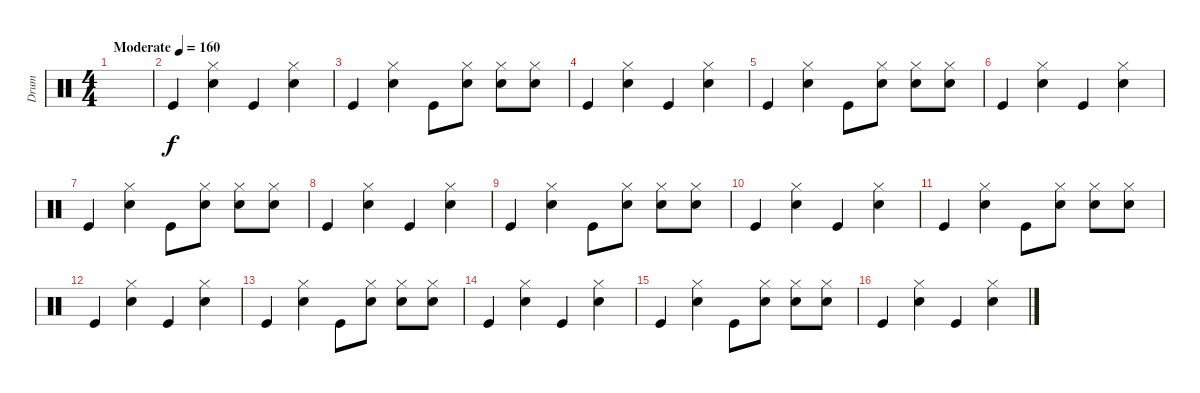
\track ("Drum" "Drum") {instrument percussion}
\staff {score}
\articulation defaults
\ts (4 4)
\tempo (160 "Moderate")
\clef neutral
\ks c
|
"Kick (hit)".4 ("Hi-Hat (closed)" "Snare (hit) 2").4 "Kick (hit)".4 ("Hi-Hat (closed)" "Snare (hit) 2").4 |
"Kick (hit)".4 ("Hi-Hat (closed)" "Snare (hit) 2").4 "Kick (hit)".8 ("Hi-Hat (closed)" "Snare (hit) 2").8 ("Hi-Hat (closed)" "Snare (hit) 2").8 ("Hi-Hat (closed)" "Snare (hit) 2").8 |
"Kick (hit)".4 ("Hi-Hat (closed)" "Snare (hit) 2").4 "Kick (hit)".4 ("Hi-Hat (closed)" "Snare (hit) 2").4 |
"Kick (hit)".4 ("Hi-Hat (closed)" "Snare (hit) 2").4 "Kick (hit)".8 ("Hi-Hat (closed)" "Snare (hit) 2").8 ("Hi-Hat (closed)" "Snare (hit) 2").8 ("Hi-Hat (closed)" "Snare (hit) 2").8 |
"Kick (hit)".4 ("Hi-Hat (closed)" "Snare (hit) 2").4 "Kick (hit)".4 ("Hi-Hat (closed)" "Snare (hit) 2").4 |
"Kick (hit)".4 ("Hi-Hat (closed)" "Snare (hit) 2").4 "Kick (hit)".8 ("Hi-Hat (closed)" "Snare (hit) 2").8 ("Hi-Hat (closed)" "Snare (hit) 2").8 ("Hi-Hat (closed)" "Snare (hit) 2").8 |
"Kick (hit)".4 ("Hi-Hat (closed)" "Snare (hit) 2").4 "Kick (hit)".4 ("Hi-Hat (closed)" "Snare (hit) 2").4 |
"Kick (hit)".4 ("Hi-Hat (closed)" "Snare (hit) 2").4 "Kick (hit)".8 ("Hi-Hat (closed)" "Snare (hit) 2").8 ("Hi-Hat (closed)" "Snare (hit) 2").8 ("Hi-Hat (closed)" "Snare (hit) 2").8 |
"Kick (hit)".4 ("Hi-Hat (closed)" "Snare (hit) 2").4 "Kick (hit)".4 ("Hi-Hat (closed)" "Snare (hit) 2").4 |
"Kick (hit)".4 ("Hi-Hat (closed)" "Snare (hit) 2").4 "Kick (hit)".8 ("Hi-Hat (closed)" "Snare (hit) 2").8 ("Hi-Hat (closed)" "Snare (hit) 2").8 ("Hi-Hat (closed)" "Snare (hit) 2").8 |
"Kick (hit)".4 ("Hi-Hat (closed)" "Snare (hit) 2").4 "Kick (hit)".4 ("Hi-Hat (closed)" "Snare (hit) 2").4 |
"Kick (hit)".4 ("Hi-Hat (closed)" "Snare (hit) 2").4 "Kick (hit)".8 ("Hi-Hat (closed)" "Snare (hit) 2").8 ("Hi-Hat (closed)" "Snare (hit) 2").8 ("Hi-Hat (closed)" "Snare (hit) 2").8 |
"Kick (hit)".4 ("Hi-Hat (closed)" "Snare (hit) 2").4 "Kick (hit)".4 ("Hi-Hat (closed)" "Snare (hit) 2").4 |
"Kick (hit)".4 ("Hi-Hat (closed)" "Snare (hit) 2").4 "Kick (hit)".8 ("Hi-Hat (closed)" "Snare (hit) 2").8 ("Hi-Hat (closed)" "Snare (hit) 2").8 ("Hi-Hat (closed)" "Snare (hit) 2").8 |
"Kick (hit)".4 ("Hi-Hat (closed)" "Snare (hit) 2").4 "Kick (hit)".4 ("Hi-Hat (closed)" "Snare (hit) 2").4
